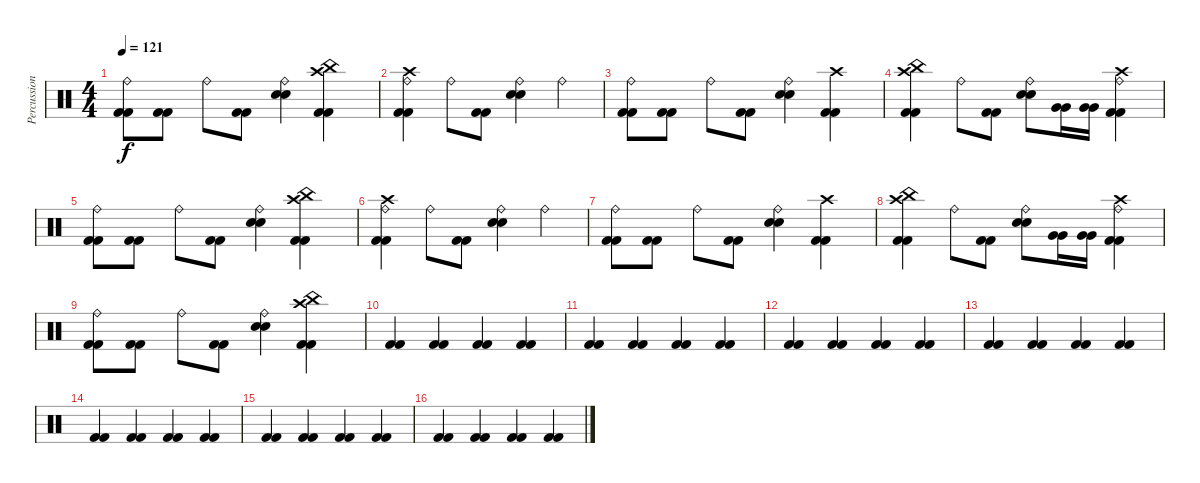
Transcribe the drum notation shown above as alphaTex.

\track ("Percussion" "Percussion") {instrument percussion}
\staff {score}
\articulation defaults
\ts (4 4)
\tempo 121
\clef neutral
\ks c
("Ride (bell)" "Kick (hit) 2" "Kick (hit) 2").8{dy f} ("Kick (hit) 2" "Kick (hit) 2").8 "Ride (bell)".8 ("Kick (hit) 2" "Kick (hit) 2").8 ("Ride (bell)" "Electric Snare (hit)" "Electric Snare (hit)").4 ("Crash high (hit)" "China (hit)" "Kick (hit) 2" "Kick (hit) 2").4 |
("Crash high (hit)" "Ride (bell)" "Kick (hit) 2" "Kick (hit) 2").4 "Ride (bell)".8 ("Kick (hit) 2" "Kick (hit) 2").8 ("Ride (bell)" "Electric Snare (hit)" "Electric Snare (hit)").4 "Ride (bell)".4 |
("Ride (bell)" "Kick (hit) 2" "Kick (hit) 2").8 ("Kick (hit) 2" "Kick (hit) 2").8 "Ride (bell)".8 ("Kick (hit) 2" "Kick (hit) 2").8 ("Ride (bell)" "Electric Snare (hit)" "Electric Snare (hit)").4 ("Crash high (hit)" "Kick (hit) 2" "Kick (hit) 2").4 |
("China (hit)" "Crash high (hit)" "Kick (hit) 2" "Kick (hit) 2").4 "Ride (bell)".8 ("Kick (hit) 2" "Kick (hit) 2").8 ("Ride (bell)" "Electric Snare (hit)" "Electric Snare (hit)").8 ("Very Low Tom (hit)" "Very Low Tom (hit)").16 ("Very Low Tom (hit)" "Very Low Tom (hit)").16 ("Crash high (hit)" "Ride (bell)" "Kick (hit) 2" "Kick (hit) 2").4 |
("Ride (bell)" "Kick (hit) 2" "Kick (hit) 2").8 ("Kick (hit) 2" "Kick (hit) 2").8 "Ride (bell)".8 ("Kick (hit) 2" "Kick (hit) 2").8 ("Ride (bell)" "Electric Snare (hit)" "Electric Snare (hit)").4 ("Crash high (hit)" "China (hit)" "Kick (hit) 2" "Kick (hit) 2").4 |
("Crash high (hit)" "Ride (bell)" "Kick (hit) 2" "Kick (hit) 2").4 "Ride (bell)".8 ("Kick (hit) 2" "Kick (hit) 2").8 ("Ride (bell)" "Electric Snare (hit)" "Electric Snare (hit)").4 "Ride (bell)".4 |
("Ride (bell)" "Kick (hit) 2" "Kick (hit) 2").8 ("Kick (hit) 2" "Kick (hit) 2").8 "Ride (bell)".8 ("Kick (hit) 2" "Kick (hit) 2").8 ("Ride (bell)" "Electric Snare (hit)" "Electric Snare (hit)").4 ("Crash high (hit)" "Kick (hit) 2" "Kick (hit) 2").4 |
("China (hit)" "Crash high (hit)" "Kick (hit) 2" "Kick (hit) 2").4 "Ride (bell)".8 ("Kick (hit) 2" "Kick (hit) 2").8 ("Ride (bell)" "Electric Snare (hit)" "Electric Snare (hit)").8 ("Very Low Tom (hit)" "Very Low Tom (hit)").16 ("Very Low Tom (hit)" "Very Low Tom (hit)").16 ("Crash high (hit)" "Ride (bell)" "Kick (hit) 2" "Kick (hit) 2").4 |
("Ride (bell)" "Kick (hit) 2" "Kick (hit) 2").8 ("Kick (hit) 2" "Kick (hit) 2").8 "Ride (bell)".8 ("Kick (hit) 2" "Kick (hit) 2").8 ("Ride (bell)" "Electric Snare (hit)" "Electric Snare (hit)").4 ("Crash high (hit)" "China (hit)" "Kick (hit) 2" "Kick (hit) 2").4 |
("Kick (hit) 2" "Kick (hit) 2").4 ("Kick (hit) 2" "Kick (hit) 2").4 ("Kick (hit) 2" "Kick (hit) 2").4 ("Kick (hit) 2" "Kick (hit) 2").4 |
("Kick (hit) 2" "Kick (hit) 2").4 ("Kick (hit) 2" "Kick (hit) 2").4 ("Kick (hit) 2" "Kick (hit) 2").4 ("Kick (hit) 2" "Kick (hit) 2").4 |
("Kick (hit) 2" "Kick (hit) 2").4 ("Kick (hit) 2" "Kick (hit) 2").4 ("Kick (hit) 2" "Kick (hit) 2").4 ("Kick (hit) 2" "Kick (hit) 2").4 |
("Kick (hit) 2" "Kick (hit) 2").4 ("Kick (hit) 2" "Kick (hit) 2").4 ("Kick (hit) 2" "Kick (hit) 2").4 ("Kick (hit) 2" "Kick (hit) 2").4 |
("Kick (hit) 2" "Kick (hit) 2").4 ("Kick (hit) 2" "Kick (hit) 2").4 ("Kick (hit) 2" "Kick (hit) 2").4 ("Kick (hit) 2" "Kick (hit) 2").4 |
("Kick (hit) 2" "Kick (hit) 2").4 ("Kick (hit) 2" "Kick (hit) 2").4 ("Kick (hit) 2" "Kick (hit) 2").4 ("Kick (hit) 2" "Kick (hit) 2").4 |
("Kick (hit) 2" "Kick (hit) 2").4 ("Kick (hit) 2" "Kick (hit) 2").4 ("Kick (hit) 2" "Kick (hit) 2").4 ("Kick (hit) 2" "Kick (hit) 2").4
